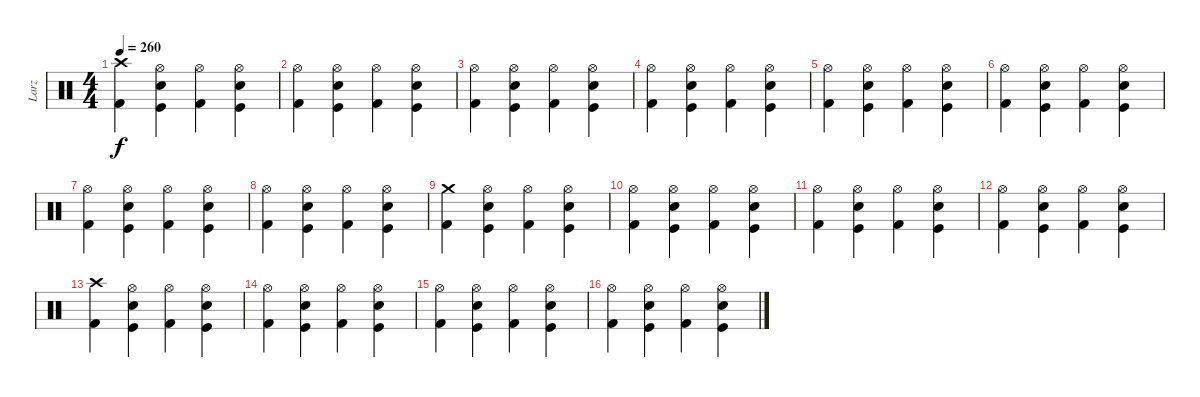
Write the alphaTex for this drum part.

\track ("Larz" "Larz") {instrument percussion}
\staff {score}
\articulation defaults
\ts (4 4)
\tempo 260
\clef neutral
\ks c
("Crash high (hit)" "Kick (hit) 2").4{dy f} ("Hi-Hat (open)" "Kick (hit)" "Electric Snare (hit)").4 ("Hi-Hat (open)" "Kick (hit) 2").4 ("Hi-Hat (open)" "Kick (hit)" "Electric Snare (hit)").4 |
("Hi-Hat (open)" "Kick (hit) 2").4 ("Hi-Hat (open)" "Kick (hit)" "Electric Snare (hit)").4 ("Hi-Hat (open)" "Kick (hit) 2").4 ("Hi-Hat (open)" "Kick (hit)" "Electric Snare (hit)").4 |
("Hi-Hat (open)" "Kick (hit) 2").4 ("Hi-Hat (open)" "Kick (hit)" "Electric Snare (hit)").4 ("Hi-Hat (open)" "Kick (hit) 2").4 ("Hi-Hat (open)" "Kick (hit)" "Electric Snare (hit)").4 |
("Hi-Hat (open)" "Kick (hit) 2").4 ("Hi-Hat (open)" "Kick (hit)" "Electric Snare (hit)").4 ("Hi-Hat (open)" "Kick (hit) 2").4 ("Hi-Hat (open)" "Kick (hit)" "Electric Snare (hit)").4 |
("Hi-Hat (open)" "Kick (hit) 2").4 ("Hi-Hat (open)" "Kick (hit)" "Electric Snare (hit)").4 ("Hi-Hat (open)" "Kick (hit) 2").4 ("Hi-Hat (open)" "Kick (hit)" "Electric Snare (hit)").4 |
("Hi-Hat (open)" "Kick (hit) 2").4 ("Hi-Hat (open)" "Kick (hit)" "Electric Snare (hit)").4 ("Hi-Hat (open)" "Kick (hit) 2").4 ("Hi-Hat (open)" "Kick (hit)" "Electric Snare (hit)").4 |
("Hi-Hat (open)" "Kick (hit) 2").4 ("Hi-Hat (open)" "Kick (hit)" "Electric Snare (hit)").4 ("Hi-Hat (open)" "Kick (hit) 2").4 ("Hi-Hat (open)" "Kick (hit)" "Electric Snare (hit)").4 |
("Hi-Hat (open)" "Kick (hit) 2").4 ("Hi-Hat (open)" "Kick (hit)" "Electric Snare (hit)").4 ("Hi-Hat (open)" "Kick (hit) 2").4 ("Hi-Hat (open)" "Kick (hit)" "Electric Snare (hit)").4 |
("Crash medium (hit)" "Kick (hit) 2").4 ("Hi-Hat (open)" "Kick (hit)" "Electric Snare (hit)").4 ("Hi-Hat (open)" "Kick (hit) 2").4 ("Hi-Hat (open)" "Kick (hit)" "Electric Snare (hit)").4 |
("Hi-Hat (open)" "Kick (hit) 2").4 ("Hi-Hat (open)" "Kick (hit)" "Electric Snare (hit)").4 ("Hi-Hat (open)" "Kick (hit) 2").4 ("Hi-Hat (open)" "Kick (hit)" "Electric Snare (hit)").4 |
("Hi-Hat (open)" "Kick (hit) 2").4 ("Hi-Hat (open)" "Kick (hit)" "Electric Snare (hit)").4 ("Hi-Hat (open)" "Kick (hit) 2").4 ("Hi-Hat (open)" "Kick (hit)" "Electric Snare (hit)").4 |
("Hi-Hat (open)" "Kick (hit) 2").4 ("Hi-Hat (open)" "Kick (hit)" "Electric Snare (hit)").4 ("Hi-Hat (open)" "Kick (hit) 2").4 ("Hi-Hat (open)" "Kick (hit)" "Electric Snare (hit)").4 |
("Crash high (hit)" "Kick (hit) 2").4 ("Hi-Hat (open)" "Kick (hit)" "Electric Snare (hit)").4 ("Hi-Hat (open)" "Kick (hit) 2").4 ("Hi-Hat (open)" "Kick (hit)" "Electric Snare (hit)").4 |
("Hi-Hat (open)" "Kick (hit) 2").4 ("Hi-Hat (open)" "Kick (hit)" "Electric Snare (hit)").4 ("Hi-Hat (open)" "Kick (hit) 2").4 ("Hi-Hat (open)" "Kick (hit)" "Electric Snare (hit)").4 |
("Hi-Hat (open)" "Kick (hit) 2").4 ("Hi-Hat (open)" "Kick (hit)" "Electric Snare (hit)").4 ("Hi-Hat (open)" "Kick (hit) 2").4 ("Hi-Hat (open)" "Kick (hit)" "Electric Snare (hit)").4 |
("Hi-Hat (open)" "Kick (hit) 2").4 ("Hi-Hat (open)" "Kick (hit)" "Electric Snare (hit)").4 ("Hi-Hat (open)" "Kick (hit) 2").4 ("Hi-Hat (open)" "Kick (hit)" "Electric Snare (hit)").4
